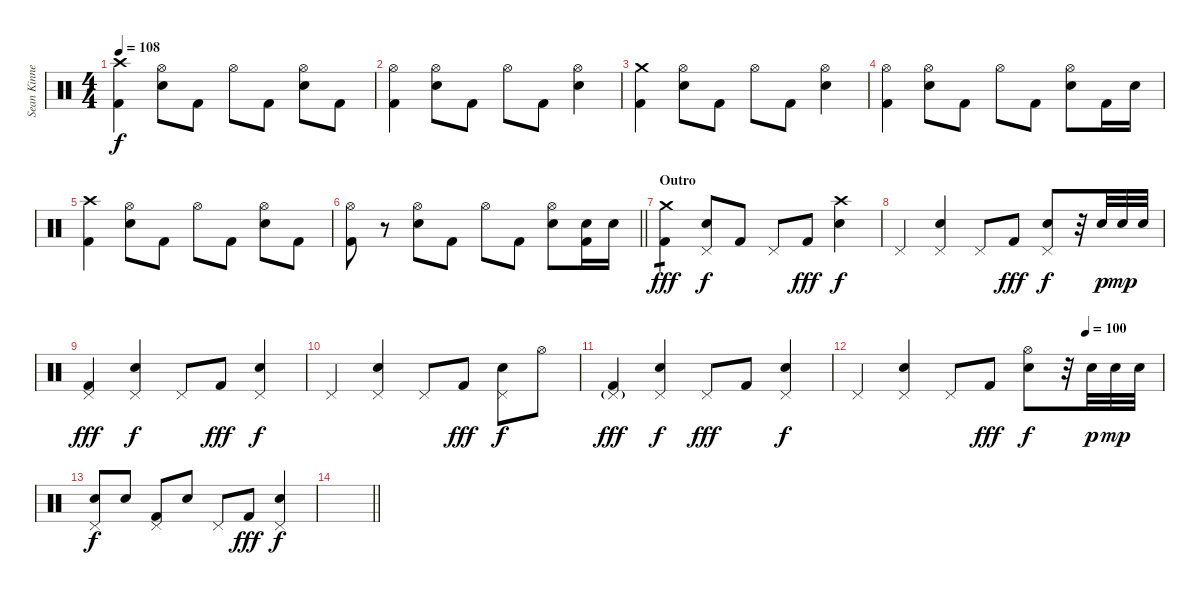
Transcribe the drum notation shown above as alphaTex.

\track ("Sean Kinney" "Sean Kinne") {instrument percussion}
\staff {score}
\articulation defaults
\ts (4 4)
\tempo 108
\clef neutral
\ks c
("Crash high (hit)" "Kick (hit) 2").4{dy f} ("Hi-Hat (open)" "Snare (hit) 2").8 "Kick (hit) 2".8 "Hi-Hat (open)".8 "Kick (hit) 2".8 ("Hi-Hat (open)" "Snare (hit) 2").8 "Kick (hit) 2".8 |
("Hi-Hat (open)" "Kick (hit) 2").4 ("Hi-Hat (open)" "Snare (hit) 2").8 "Kick (hit) 2".8 "Hi-Hat (open)".8 "Kick (hit) 2".8 ("Hi-Hat (open)" "Snare (hit) 2").4 |
("Crash medium (hit)" "Kick (hit) 2").4 ("Hi-Hat (open)" "Snare (hit) 2").8 "Kick (hit) 2".8 "Hi-Hat (open)".8 "Kick (hit) 2".8 ("Hi-Hat (open)" "Snare (hit) 2").4 |
("Hi-Hat (open)" "Kick (hit) 2").4 ("Hi-Hat (open)" "Snare (hit) 2").8 "Kick (hit) 2".8 "Hi-Hat (open)".8 "Kick (hit) 2".8 ("Hi-Hat (open)" "Snare (hit) 2").8 "Kick (hit) 2".16 "Snare (hit) 2".16 |
("Crash high (hit)" "Kick (hit) 2").4 ("Hi-Hat (open)" "Snare (hit) 2").8 "Kick (hit) 2".8 "Hi-Hat (open)".8 "Kick (hit) 2".8 ("Hi-Hat (open)" "Snare (hit) 2").8 "Kick (hit) 2".8 |
\barLineRight lightlight
("Hi-Hat (open)" "Kick (hit) 2").8 r.8 ("Hi-Hat (open)" "Snare (hit) 2").8 "Kick (hit) 2".8 "Hi-Hat (open)".8 "Kick (hit) 2".8 ("Hi-Hat (open)" "Snare (hit) 2").8 ("Snare (hit) 2" "Kick (hit) 2").16 "Snare (hit) 2".16 |
\section ("" "Outro")
("Crash medium (hit)" "Kick (hit) 2").4{tp 1 dy fff} ("Pedal Hi-Hat (hit)" "Snare (hit) 2").8{dy f} "Kick (hit) 2".8 "Pedal Hi-Hat (hit)".8 "Kick (hit) 2".8{dy fff} ("Crash high (hit)" "Snare (hit) 2").4{dy f} |
"Pedal Hi-Hat (hit)".4 ("Pedal Hi-Hat (hit)" "Snare (hit) 2").4 "Pedal Hi-Hat (hit)".8 "Kick (hit) 2".8{dy fff} ("Pedal Hi-Hat (hit)" "Snare (hit) 2").8{dy f} r.32 "Snare (hit) 2".32{dy p} "Snare (hit) 2".32{dy mp} "Snare (hit) 2".32 |
("Pedal Hi-Hat (hit)" "Kick (hit) 2").4{dy fff} ("Pedal Hi-Hat (hit)" "Snare (hit) 2").4{dy f} "Pedal Hi-Hat (hit)".8 "Kick (hit) 2".8{dy fff} ("Pedal Hi-Hat (hit)" "Snare (hit) 2").4{dy f} |
"Pedal Hi-Hat (hit)".4 ("Pedal Hi-Hat (hit)" "Snare (hit) 2").4 "Pedal Hi-Hat (hit)".8 "Kick (hit) 2".8{dy fff} ("Pedal Hi-Hat (hit)" "Snare (hit) 2").8{dy f} "Hi-Hat (open)".8 |
("Pedal Hi-Hat (hit)"{g} "Kick (hit) 2").4{dy fff} ("Pedal Hi-Hat (hit)" "Snare (hit) 2").4{dy f} "Pedal Hi-Hat (hit)".8{dy fff} "Kick (hit) 2".8 ("Pedal Hi-Hat (hit)" "Snare (hit) 2").4{dy f} |
\tempo (100 0.75)
"Pedal Hi-Hat (hit)".4 ("Pedal Hi-Hat (hit)" "Snare (hit) 2").4 "Pedal Hi-Hat (hit)".8 "Kick (hit) 2".8{dy fff} ("Hi-Hat (open)" "Snare (hit) 2").8{dy f} r.32 "Snare (hit) 2".32{dy p} "Snare (hit) 2".32{dy mp} "Snare (hit) 2".32 |
("Pedal Hi-Hat (hit)" "Snare (hit) 2").8{dy f} "Snare (hit) 2".8 ("Pedal Hi-Hat (hit)" "Kick (hit) 2").8 "Snare (hit) 2".8 "Pedal Hi-Hat (hit)".8 "Kick (hit) 2".8{dy fff} ("Pedal Hi-Hat (hit)" "Snare (hit) 2").4{dy f} |
\barLineRight lightlight
